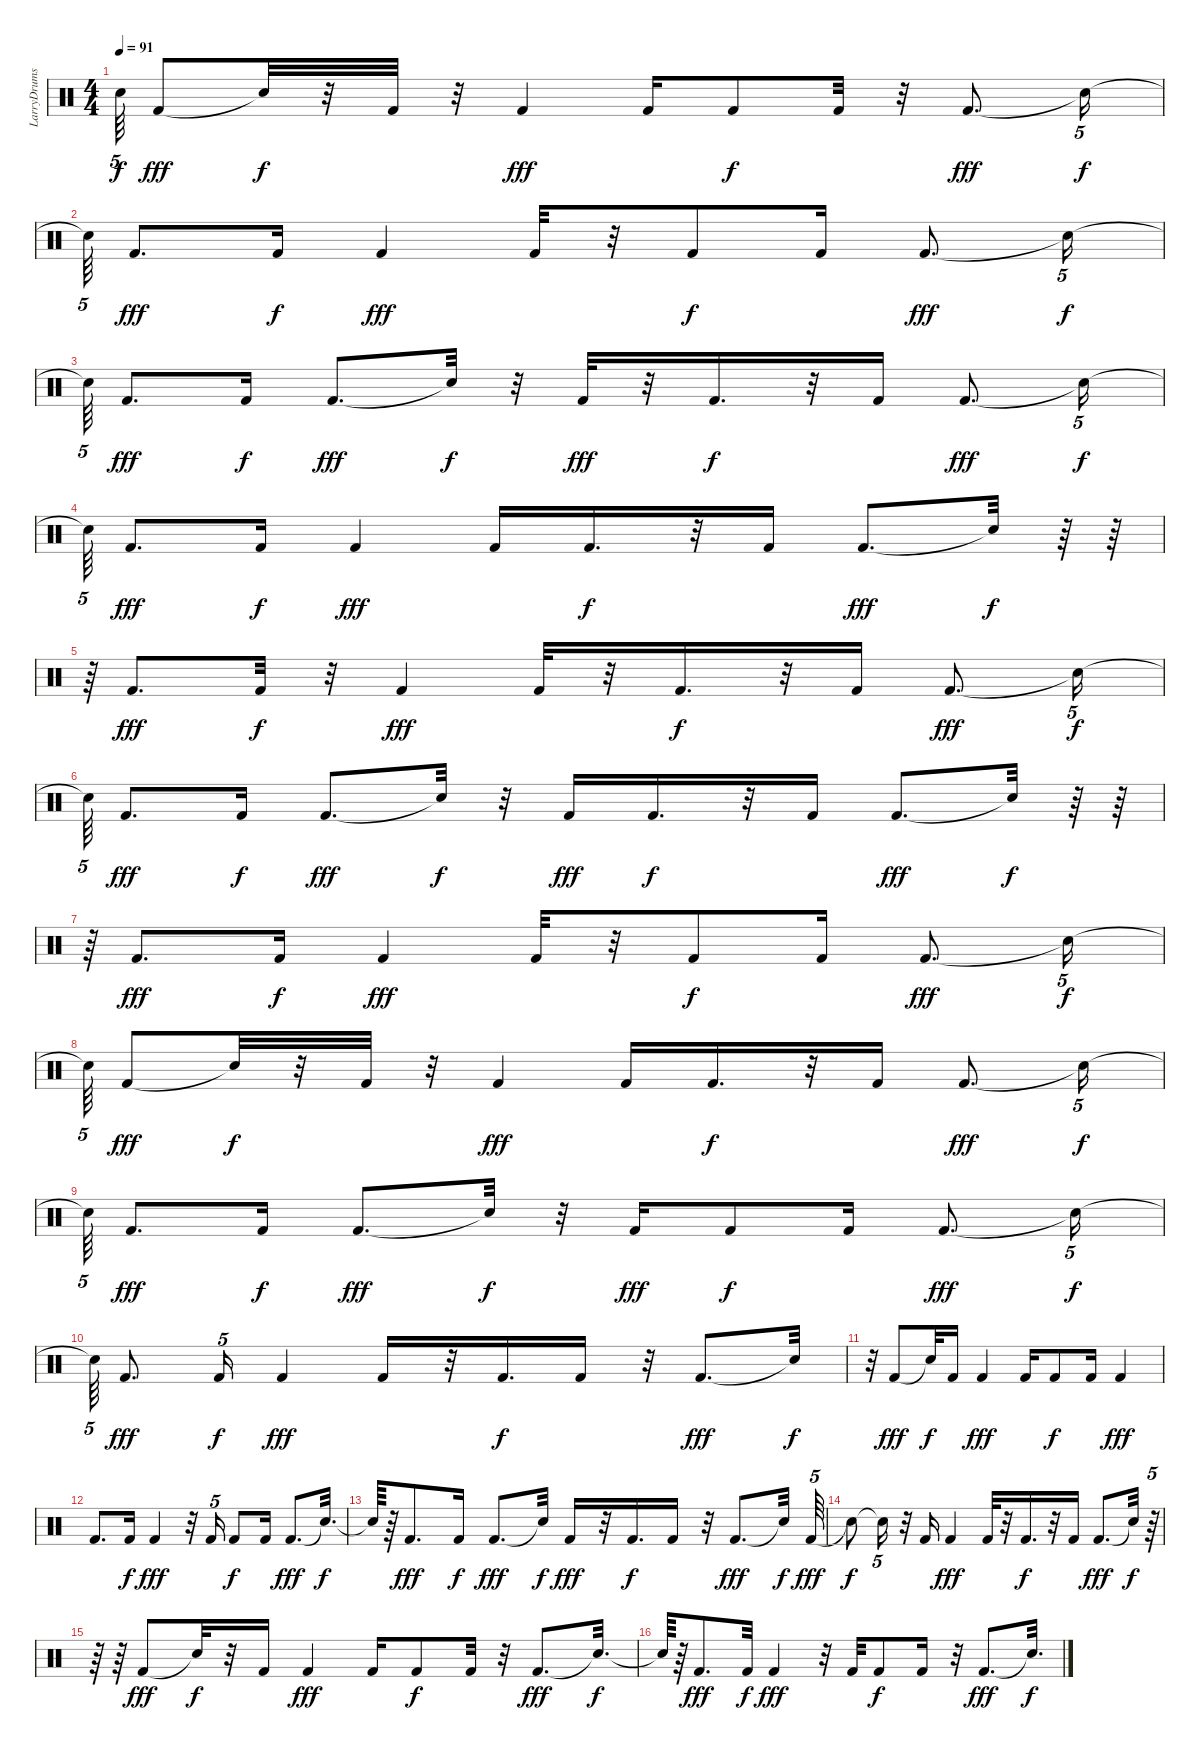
\track ("LarryDrums" "LarryDrums") {instrument percussion}
\staff {score}
\articulation defaults
\ts (4 4)
\tempo 91
\clef neutral
\ks c "Snare (hit)"{t}.64{tu (5 4) dy f} "Kick (hit) 2".8{dy fff} "Snare (hit)"{t}.32{dy f}
r.32 "Kick (hit) 2".32 r.32 "Kick (hit) 2".4{dy fff} "Kick (hit) 2".16 "Kick (hit) 2".8{dy f} "Kick (hit) 2".32 r.32 "Kick (hit) 2".8{d dy fff} "Snare (hit)"{t}.16{tu (5 4) dy f} |
"Snare (hit)"{t}.64{tu (5 4)} "Kick (hit) 2".8{d dy fff} "Kick (hit) 2".16{dy f} "Kick (hit) 2".4{dy fff} "Kick (hit) 2".32 r.32 "Kick (hit) 2".8{dy f} "Kick (hit) 2".16 "Kick (hit) 2".8{d dy fff} "Snare (hit)"{t}.16{tu (5 4) dy f} |
"Snare (hit)"{t}.64{tu (5 4)} "Kick (hit) 2".8{d dy fff} "Kick (hit) 2".16{dy f} "Kick (hit) 2".8{d dy fff} "Snare (hit)"{t}.32{dy f} r.32 "Kick (hit) 2".32{dy fff} r.32 "Kick (hit) 2".16{d dy f} r.32 "Kick (hit) 2".16 "Kick (hit) 2".8{d dy fff} "Snare (hit)"{t}.16{tu (5 4) dy f} |
"Snare (hit)"{t}.64{tu (5 4)} "Kick (hit) 2".8{d dy fff} "Kick (hit) 2".16{dy f} "Kick (hit) 2".4{dy fff} "Kick (hit) 2".16 "Kick (hit) 2".16{d dy f} r.32 "Kick (hit) 2".16 "Kick (hit) 2".8{d dy fff} "Snare (hit)"{t}.32{dy f} r.64 r.64 |
r.64{tu (5 4)} "Kick (hit) 2".8{d dy fff} "Kick (hit) 2".32{dy f} r.32 "Kick (hit) 2".4{dy fff} "Kick (hit) 2".32 r.32 "Kick (hit) 2".16{d dy f} r.32 "Kick (hit) 2".16 "Kick (hit) 2".8{d dy fff} "Snare (hit)"{t}.16{tu (5 4) dy f} |
"Snare (hit)"{t}.64{tu (5 4)} "Kick (hit) 2".8{d dy fff} "Kick (hit) 2".16{dy f} "Kick (hit) 2".8{d dy fff} "Snare (hit)"{t}.32{dy f} r.32 "Kick (hit) 2".16{dy fff} "Kick (hit) 2".16{d dy f} r.32 "Kick (hit) 2".16 "Kick (hit) 2".8{d dy fff} "Snare (hit)"{t}.32{dy f} r.64 r.64 |
r.64{tu (5 4)} "Kick (hit) 2".8{d dy fff} "Kick (hit) 2".16{dy f} "Kick (hit) 2".4{dy fff} "Kick (hit) 2".32 r.32 "Kick (hit) 2".8{dy f} "Kick (hit) 2".16 "Kick (hit) 2".8{d dy fff} "Snare (hit)"{t}.16{tu (5 4) dy f} |
"Snare (hit)"{t}.64{tu (5 4)} "Kick (hit) 2".8{dy fff} "Snare (hit)"{t}.32{dy f} r.32 "Kick (hit) 2".32 r.32 "Kick (hit) 2".4{dy fff} "Kick (hit) 2".16 "Kick (hit) 2".16{d dy f} r.32 "Kick (hit) 2".16 "Kick (hit) 2".8{d dy fff} "Snare (hit)"{t}.16{tu (5 4) dy f} |
"Snare (hit)"{t}.64{tu (5 4)} "Kick (hit) 2".8{d dy fff} "Kick (hit) 2".16{dy f} "Kick (hit) 2".8{d dy fff} "Snare (hit)"{t}.32{dy f} r.32 "Kick (hit) 2".16{dy fff} "Kick (hit) 2".8{dy f} "Kick (hit) 2".16 "Kick (hit) 2".8{d dy fff} "Snare (hit)"{t}.16{tu (5 4) dy f} |
"Snare (hit)"{t}.64{tu (5 4)} "Kick (hit) 2".8{d dy fff} "Kick (hit) 2".16{tu (5 4) dy f} "Kick (hit) 2".4{dy fff} "Kick (hit) 2".16 r.32 "Kick (hit) 2".16{d dy f} "Kick (hit) 2".16 r.32 "Kick (hit) 2".8{d dy fff} "Snare (hit)"{t}.32{dy f} |
r.32 "Kick (hit) 2".8{dy fff} "Snare (hit)"{t}.32{dy f} "Kick (hit) 2".16 "Kick (hit) 2".4{dy fff} "Kick (hit) 2".16 "Kick (hit) 2".8{dy f} "Kick (hit) 2".16 "Kick (hit) 2".4{dy fff} |
"Kick (hit) 2".8{d} "Kick (hit) 2".16{dy f} "Kick (hit) 2".4{dy fff} r.32 "Kick (hit) 2".16{tu (5 4)} "Kick (hit) 2".8{dy f} "Kick (hit) 2".16 "Kick (hit) 2".8{d dy fff} "Snare (hit)"{t}.32{d dy f} |
"Snare (hit)"{t}.64 r.64 "Kick (hit) 2".8{d dy fff} "Kick (hit) 2".16{dy f} "Kick (hit) 2".8{d dy fff} "Snare (hit)"{t}.32{dy f} "Kick (hit) 2".16{dy fff} r.32 "Kick (hit) 2".16{d dy f} "Kick (hit) 2".16 r.32 "Kick (hit) 2".8{d dy fff} "Snare (hit)"{t}.32{dy f} "Kick (hit) 2".64{tu (5 4) dy fff} |
"Snare (hit)"{t}.8{dy f} "Snare (hit)"{t}.16{tu (5 4)} r.32 "Kick (hit) 2".16 "Kick (hit) 2".4{dy fff} "Kick (hit) 2".32 r.32 "Kick (hit) 2".16{d dy f} r.32 "Kick (hit) 2".16 "Kick (hit) 2".8{d dy fff} "Snare (hit)"{t}.32{dy f} r.64{tu (5 4)} |
r.64 r.64 "Kick (hit) 2".8{dy fff} "Snare (hit)"{t}.32{dy f} r.32 "Kick (hit) 2".16 "Kick (hit) 2".4{dy fff} "Kick (hit) 2".16 "Kick (hit) 2".8{dy f} "Kick (hit) 2".32 r.32 "Kick (hit) 2".8{d dy fff} "Snare (hit)"{t}.32{d dy f} |
"Snare (hit)"{t}.64 r.64 "Kick (hit) 2".8{d dy fff} "Kick (hit) 2".32{dy f} "Kick (hit) 2".4{dy fff} r.32 "Kick (hit) 2".32 "Kick (hit) 2".8{dy f} "Kick (hit) 2".16 r.32 "Kick (hit) 2".8{d dy fff} "Snare (hit)"{t}.32{d dy f}
